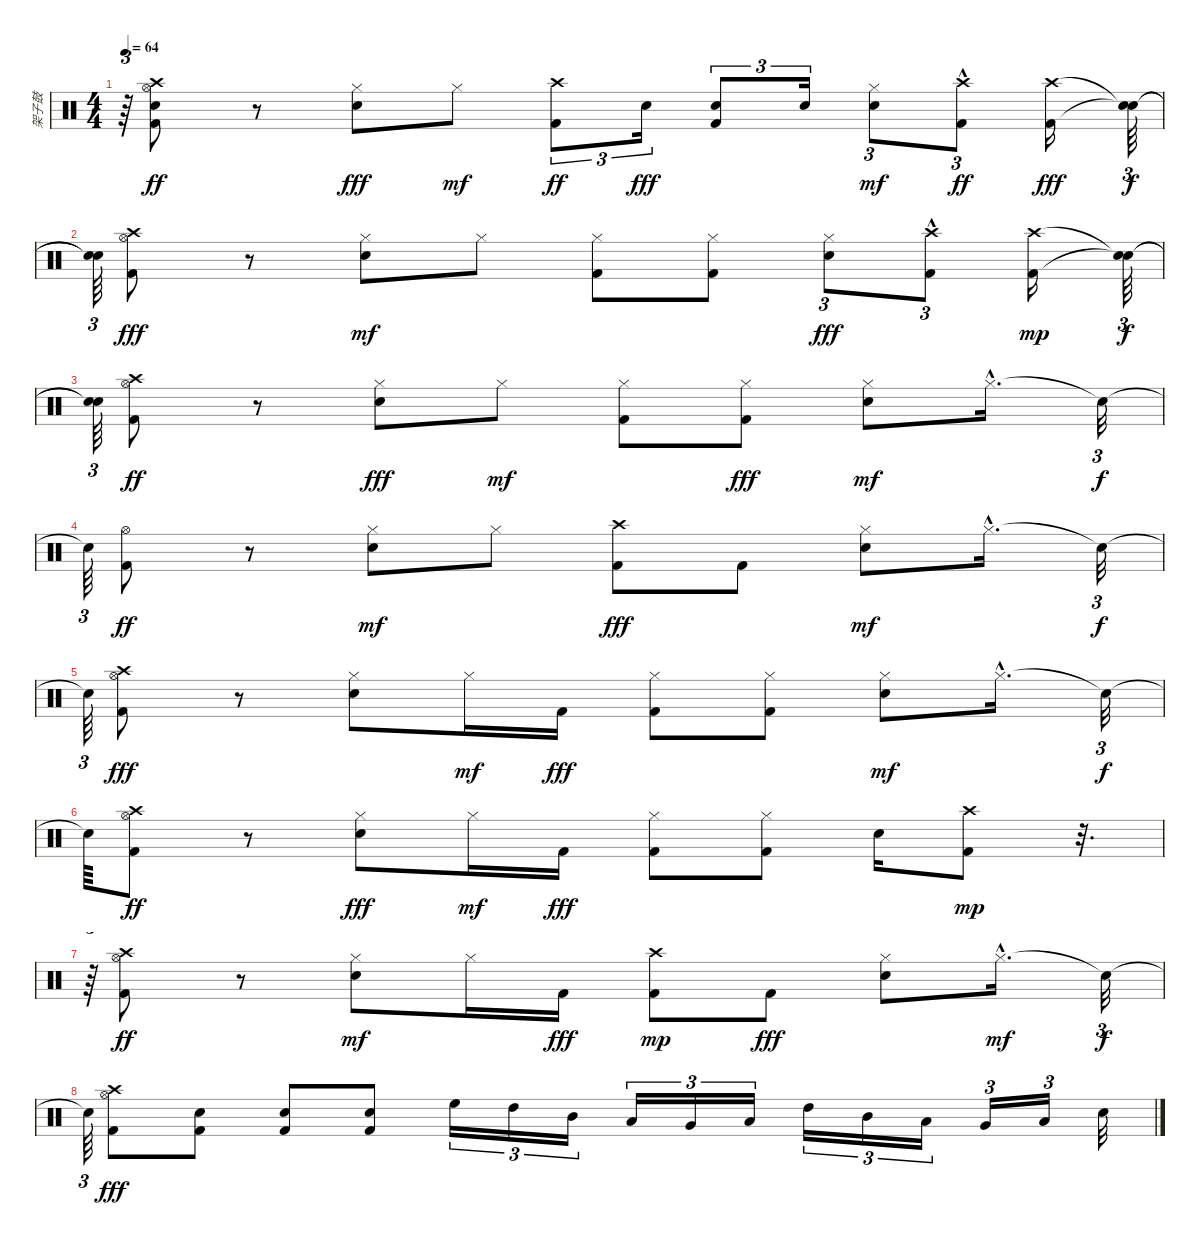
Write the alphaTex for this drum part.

\track ("架子鼓" "架子鼓") {instrument percussion}
\staff {score}
\articulation defaults
\ts (4 4)
\tempo 64
\clef neutral
\ks c
r.64{tu (3 2) dy fff} ("Kick (hit) 2" "Snare (hit) 2" "Hi-Hat (open)" "Crash high (hit)").8{dy ff} r.8 ("Hi-Hat (closed)" "Snare (hit) 2").8{dy fff} "Hi-Hat (closed)".8{dy mf} ("Kick (hit) 2" "Crash high (hit)").8{tu (3 2) dy ff} "Snare (hit) 2".16{tu (3 2) dy fff} ("Snare (hit) 2" "Kick (hit) 2").8{tu (3 2)} "Snare (hit) 2".16{tu (3 2)} ("Snare (hit) 2" "Hi-Hat (closed)").8{tu (3 2) dy mf} ("Kick (hit) 2"{hac} "Crash high (hit)"{hac}).8{tu (3 2) dy ff} ("Crash high (hit)" "Kick (hit) 2").16{dy fff} ("Snare (hit)"{t} "Snare (hit)"{t}).64{tu (3 2) dy f} |
("Snare (hit)"{t} "Snare (hit)"{t}).64{tu (3 2)} ("Hi-Hat (open)" "Crash high (hit)" "Kick (hit) 2").8{dy fff} r.8 ("Snare (hit) 2" "Hi-Hat (closed)").8{dy mf} "Hi-Hat (closed)".8 ("Kick (hit) 2" "Hi-Hat (closed)").8 ("Kick (hit) 2" "Hi-Hat (closed)").8 ("Hi-Hat (closed)" "Snare (hit) 2").8{tu (3 2) dy fff} ("Crash high (hit)"{hac} "Kick (hit) 2"{hac}).8{tu (3 2)} ("Kick (hit) 2" "Crash high (hit)").16{dy mp} ("Snare (hit)"{t} "Snare (hit)"{t}).64{tu (3 2) dy f} |
("Snare (hit)"{t} "Snare (hit)"{t}).64{tu (3 2)} ("Hi-Hat (open)" "Kick (hit) 2" "Crash high (hit)").8{dy ff} r.8 ("Hi-Hat (closed)" "Snare (hit) 2").8{dy fff} "Hi-Hat (closed)".8{dy mf} ("Kick (hit) 2" "Hi-Hat (closed)").8 ("Hi-Hat (closed)" "Kick (hit) 2").8{dy fff} ("Snare (hit) 2" "Hi-Hat (closed)").8{dy mf} "Hi-Hat (closed)"{hac}.16{d} "Snare (hit)"{t}.32{tu (3 2) dy f} |
"Snare (hit)"{t}.64{tu (3 2)} ("Kick (hit) 2" "Hi-Hat (open)").8{dy ff} r.8 ("Snare (hit) 2" "Hi-Hat (closed)").8{dy mf} "Hi-Hat (closed)".8 ("Crash high (hit)" "Kick (hit) 2").8{dy fff} "Kick (hit) 2".8 ("Snare (hit) 2" "Hi-Hat (closed)").8{dy mf} "Hi-Hat (closed)"{hac}.16{d} "Snare (hit)"{t}.32{tu (3 2) dy f} |
"Snare (hit)"{t}.64{tu (3 2)} ("Crash high (hit)" "Hi-Hat (open)" "Kick (hit) 2").8{dy fff} r.8 ("Hi-Hat (closed)" "Snare (hit) 2").8 "Hi-Hat (closed)".16{dy mf} "Kick (hit) 2".16{dy fff} ("Hi-Hat (closed)" "Kick (hit) 2").8 ("Hi-Hat (closed)" "Kick (hit) 2").8 ("Snare (hit) 2" "Hi-Hat (closed)").8{dy mf} "Hi-Hat (closed)"{hac}.16{d} "Snare (hit)"{t}.32{tu (3 2) dy f} |
"Snare (hit)"{t}.64 ("Kick (hit) 2" "Crash high (hit)" "Hi-Hat (open)").8{dy ff} r.8 ("Hi-Hat (closed)" "Snare (hit) 2").8{dy fff} "Hi-Hat (closed)".16{dy mf} "Kick (hit) 2".16{dy fff} ("Hi-Hat (closed)" "Kick (hit) 2").8 ("Hi-Hat (closed)" "Kick (hit) 2").8 "Snare (hit) 2".16 ("Kick (hit) 2" "Crash high (hit)").8{dy mp} r.32{d} |
r.64{tu (3 2)} ("Kick (hit) 2" "Crash high (hit)" "Hi-Hat (open)").8{dy ff} r.8 ("Snare (hit) 2" "Hi-Hat (closed)").8{dy mf} "Hi-Hat (closed)".16 "Kick (hit) 2".16{dy fff} ("Kick (hit) 2" "Crash high (hit)").8{dy mp} "Kick (hit) 2".8{dy fff} ("Hi-Hat (closed)" "Snare (hit) 2").8 "Hi-Hat (closed)"{hac}.16{d dy mf} "Snare (hit)"{t}.32{tu (3 2) dy f} |
"Snare (hit)"{t}.64{tu (3 2)} ("Crash high (hit)" "Hi-Hat (open)" "Kick (hit) 2").8{dy fff} ("Kick (hit) 2" "Snare (hit) 2").8 ("Snare (hit) 2" "Kick (hit) 2").8 ("Kick (hit) 2" "Snare (hit) 2").8 "High Floor Tom (hit)".16{tu (3 2)} "High Tom (hit)".16{tu (3 2)} "Mid Tom (hit)".16{tu (3 2)} "Low Tom (hit)".16{tu (3 2)} "Very Low Tom (hit)".16{tu (3 2)} "Low Floor Tom (hit)".16{tu (3 2)} "High Tom (hit)".16{tu (3 2)} "Mid Tom (hit)".16{tu (3 2)} "Low Tom (hit)".16{tu (3 2)} "Very Low Tom (hit)".16{tu (3 2)} "Low Floor Tom (hit)".16{tu (3 2)} "Electric Snare (hit)".32
